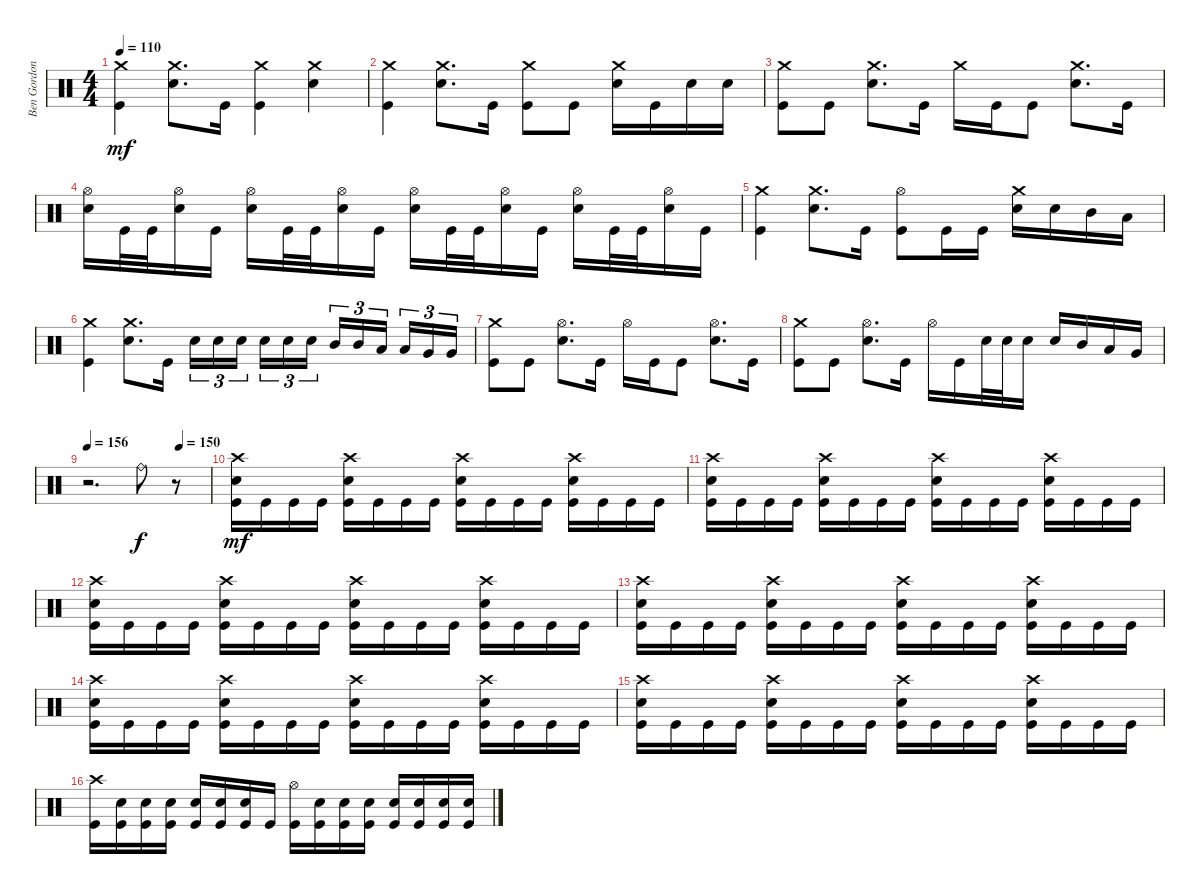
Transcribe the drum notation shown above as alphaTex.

\track ("Ben Gordon" "Ben Gordon") {instrument percussion}
\staff {score}
\articulation defaults
\ts (4 4)
\tempo 110
\clef neutral
\ks c
("Crash medium (hit)" "Kick (hit)").4{dy mf} ("Crash medium (hit)" "Snare (hit) 2").8{d} "Kick (hit)".16 ("Crash medium (hit)" "Kick (hit)").4 ("Crash medium (hit)" "Snare (hit) 2").4 |
("Crash medium (hit)" "Kick (hit)").4 ("Crash medium (hit)" "Snare (hit) 2").8{d} "Kick (hit)".16 ("Crash medium (hit)" "Kick (hit)").8 "Kick (hit)".8 ("Crash medium (hit)" "Snare (hit) 2").16 "Kick (hit)".16 "Snare (hit) 2".16 "Snare (hit) 2".16 |
("Crash medium (hit)" "Kick (hit)").8 "Kick (hit)".8 ("Crash medium (hit)" "Snare (hit) 2").8{d} "Kick (hit)".16 "Crash medium (hit)".16 "Kick (hit)".16 "Kick (hit)".8 ("Crash medium (hit)" "Snare (hit) 2").8{d} "Kick (hit)".16 |
("Hi-Hat (open)" "Snare (hit) 2").16 "Kick (hit)".32 "Kick (hit)".32 ("Hi-Hat (open)" "Snare (hit) 2").16 "Kick (hit)".16 ("Hi-Hat (open)" "Snare (hit) 2").16 "Kick (hit)".32 "Kick (hit)".32 ("Hi-Hat (open)" "Snare (hit) 2").16 "Kick (hit)".16 ("Hi-Hat (open)" "Snare (hit) 2").16 "Kick (hit)".32 "Kick (hit)".32 ("Hi-Hat (open)" "Snare (hit) 2").16 "Kick (hit)".16 ("Hi-Hat (open)" "Snare (hit) 2").16 "Kick (hit)".32 "Kick (hit)".32 ("Hi-Hat (open)" "Snare (hit) 2").16 "Kick (hit)".16 |
("Crash medium (hit)" "Kick (hit)").4 ("Crash medium (hit)" "Snare (hit) 2").8{d} "Kick (hit)".16 ("Hi-Hat (open)" "Kick (hit)").8 "Kick (hit)".16 "Kick (hit)".16 ("Crash medium (hit)" "Snare (hit) 2").16 "Snare (hit) 2".16 "Mid Tom (hit)".16 "Low Tom (hit)".16 |
("Crash medium (hit)" "Kick (hit)").4 ("Crash medium (hit)" "Snare (hit) 2").8{d} "Kick (hit)".16 "Snare (hit) 2".16{tu (3 2)} "Snare (hit) 2".16{tu (3 2)} "Snare (hit) 2".16{tu (3 2) beam splitsecondary} "Snare (hit) 2".16{tu (3 2)} "Snare (hit) 2".16{tu (3 2)} "Snare (hit) 2".16{tu (3 2)} "Mid Tom (hit)".16{tu (3 2)} "Mid Tom (hit)".16{tu (3 2)} "Low Tom (hit)".16{tu (3 2) beam splitsecondary} "Low Tom (hit)".16{tu (3 2)} "Very Low Tom (hit)".16{tu (3 2)} "Very Low Tom (hit)".16{tu (3 2)} |
("Crash medium (hit)" "Kick (hit)").8 "Kick (hit)".8 ("Hi-Hat (open)" "Snare (hit) 2").8{d} "Kick (hit)".16 "Hi-Hat (open)".16 "Kick (hit)".16 "Kick (hit)".8 ("Hi-Hat (open)" "Snare (hit) 2").8{d} "Kick (hit)".16 |
("Crash medium (hit)" "Kick (hit)").8 "Kick (hit)".8 ("Hi-Hat (open)" "Snare (hit) 2").8{d} "Kick (hit)".16 "Hi-Hat (open)".16 "Kick (hit)".16 "Snare (hit) 2".32 "Snare (hit) 2".32 "Snare (hit) 2".16 "Snare (hit) 2".16 "Mid Tom (hit)".16 "Low Tom (hit)".16 "Very Low Tom (hit)".16 |
\tempo 156
\tempo (150 0.75)
r.2{d} "Ride (bell)".8{dy f} r.8 |
("Crash high (hit)" "Snare (hit) 2" "Kick (hit)").16{dy mf} "Kick (hit)".16 "Kick (hit)".16 "Kick (hit)".16 ("Crash high (hit)" "Snare (hit) 2" "Kick (hit)").16 "Kick (hit)".16 "Kick (hit)".16 "Kick (hit)".16 ("Crash high (hit)" "Snare (hit) 2" "Kick (hit)").16 "Kick (hit)".16 "Kick (hit)".16 "Kick (hit)".16 ("Crash high (hit)" "Snare (hit) 2" "Kick (hit)").16 "Kick (hit)".16 "Kick (hit)".16 "Kick (hit)".16 |
("Crash high (hit)" "Snare (hit) 2" "Kick (hit)").16 "Kick (hit)".16 "Kick (hit)".16 "Kick (hit)".16 ("Crash high (hit)" "Snare (hit) 2" "Kick (hit)").16 "Kick (hit)".16 "Kick (hit)".16 "Kick (hit)".16 ("Crash high (hit)" "Snare (hit) 2" "Kick (hit)").16 "Kick (hit)".16 "Kick (hit)".16 "Kick (hit)".16 ("Crash high (hit)" "Snare (hit) 2" "Kick (hit)").16 "Kick (hit)".16 "Kick (hit)".16 "Kick (hit)".16 |
("Crash high (hit)" "Snare (hit) 2" "Kick (hit)").16 "Kick (hit)".16 "Kick (hit)".16 "Kick (hit)".16 ("Crash high (hit)" "Snare (hit) 2" "Kick (hit)").16 "Kick (hit)".16 "Kick (hit)".16 "Kick (hit)".16 ("Crash high (hit)" "Snare (hit) 2" "Kick (hit)").16 "Kick (hit)".16 "Kick (hit)".16 "Kick (hit)".16 ("Crash high (hit)" "Snare (hit) 2" "Kick (hit)").16 "Kick (hit)".16 "Kick (hit)".16 "Kick (hit)".16 |
("Crash high (hit)" "Snare (hit) 2" "Kick (hit)").16 "Kick (hit)".16 "Kick (hit)".16 "Kick (hit)".16 ("Crash high (hit)" "Snare (hit) 2" "Kick (hit)").16 "Kick (hit)".16 "Kick (hit)".16 "Kick (hit)".16 ("Crash high (hit)" "Snare (hit) 2" "Kick (hit)").16 "Kick (hit)".16 "Kick (hit)".16 "Kick (hit)".16 ("Crash high (hit)" "Snare (hit) 2" "Kick (hit)").16 "Kick (hit)".16 "Kick (hit)".16 "Kick (hit)".16 |
("Crash high (hit)" "Snare (hit) 2" "Kick (hit)").16 "Kick (hit)".16 "Kick (hit)".16 "Kick (hit)".16 ("Crash high (hit)" "Snare (hit) 2" "Kick (hit)").16 "Kick (hit)".16 "Kick (hit)".16 "Kick (hit)".16 ("Crash high (hit)" "Snare (hit) 2" "Kick (hit)").16 "Kick (hit)".16 "Kick (hit)".16 "Kick (hit)".16 ("Crash high (hit)" "Snare (hit) 2" "Kick (hit)").16 "Kick (hit)".16 "Kick (hit)".16 "Kick (hit)".16 |
("Crash high (hit)" "Snare (hit) 2" "Kick (hit)").16 "Kick (hit)".16 "Kick (hit)".16 "Kick (hit)".16 ("Crash high (hit)" "Snare (hit) 2" "Kick (hit)").16 "Kick (hit)".16 "Kick (hit)".16 "Kick (hit)".16 ("Crash high (hit)" "Snare (hit) 2" "Kick (hit)").16 "Kick (hit)".16 "Kick (hit)".16 "Kick (hit)".16 ("Crash high (hit)" "Snare (hit) 2" "Kick (hit)").16 "Kick (hit)".16 "Kick (hit)".16 "Kick (hit)".16 |
("Crash high (hit)" "Kick (hit)").16 ("Snare (hit) 2" "Kick (hit)").16 ("Snare (hit) 2" "Kick (hit)").16 ("Snare (hit) 2" "Kick (hit)").16 ("Snare (hit) 2" "Kick (hit)").16 ("Snare (hit) 2" "Kick (hit)").16 ("Snare (hit) 2" "Kick (hit)").16 "Kick (hit)".16 ("Hi-Hat (open)" "Kick (hit)").16 ("Snare (hit) 2" "Kick (hit)").16 ("Snare (hit) 2" "Kick (hit)").16 ("Snare (hit) 2" "Kick (hit)").16 ("Snare (hit) 2" "Kick (hit)").16 ("Snare (hit) 2" "Kick (hit)").16 ("Snare (hit) 2" "Kick (hit)").16 ("Snare (hit) 2" "Kick (hit)").16
